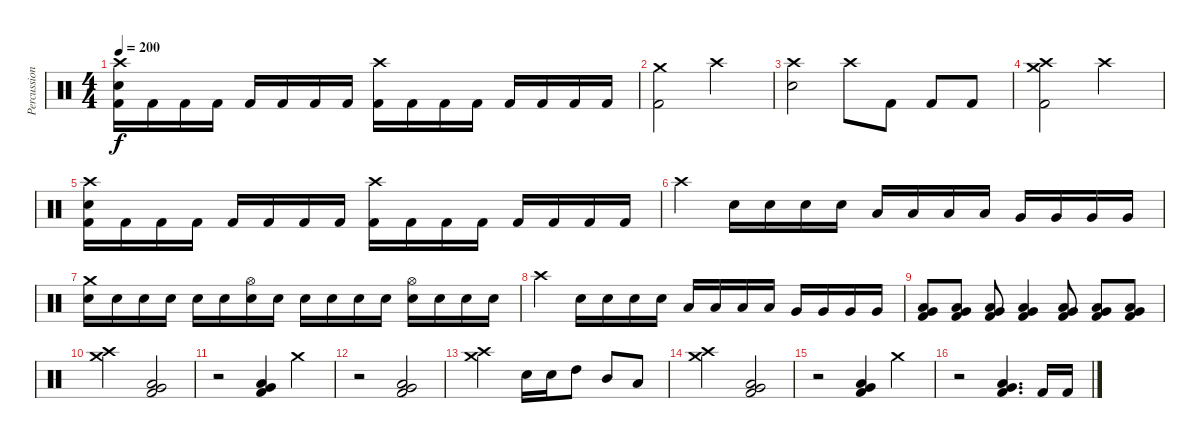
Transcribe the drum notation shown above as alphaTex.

\track ("Percussions" "Percussion") {instrument percussion}
\staff {score}
\articulation defaults
\ts (4 4)
\tempo 200
\clef neutral
\ks c
("Crash high (hit)" "Electric Snare (hit)" "Kick (hit) 2").16{dy f} "Kick (hit) 2".16 "Kick (hit) 2".16 "Kick (hit) 2".16 "Kick (hit) 2".16 "Kick (hit) 2".16 "Kick (hit) 2".16 "Kick (hit) 2".16 ("Crash high (hit)" "Kick (hit) 2").16 "Kick (hit) 2".16 "Kick (hit) 2".16 "Kick (hit) 2".16 "Kick (hit) 2".16 "Kick (hit) 2".16 "Kick (hit) 2".16 "Kick (hit) 2".16 |
("Crash medium (hit)" "Kick (hit) 2").2 "Crash high (hit)".2 |
("Crash high (hit)" "Electric Snare (hit)").2 "Crash high (hit)".8 "Kick (hit) 2".8 "Kick (hit) 2".8 "Kick (hit) 2".8 |
("Crash high (hit)" "Crash medium (hit)" "Kick (hit) 2").2 "Crash high (hit)".2 |
("Crash high (hit)" "Electric Snare (hit)" "Kick (hit) 2").16 "Kick (hit) 2".16 "Kick (hit) 2".16 "Kick (hit) 2".16 "Kick (hit) 2".16 "Kick (hit) 2".16 "Kick (hit) 2".16 "Kick (hit) 2".16 ("Crash high (hit)" "Kick (hit) 2").16 "Kick (hit) 2".16 "Kick (hit) 2".16 "Kick (hit) 2".16 "Kick (hit) 2".16 "Kick (hit) 2".16 "Kick (hit) 2".16 "Kick (hit) 2".16 |
"Crash high (hit)".4 "Electric Snare (hit)".16 "Electric Snare (hit)".16 "Electric Snare (hit)".16 "Electric Snare (hit)".16 "Low Tom (hit)".16 "Low Tom (hit)".16 "Low Tom (hit)".16 "Low Tom (hit)".16 "Very Low Tom (hit)".16 "Very Low Tom (hit)".16 "Very Low Tom (hit)".16 "Very Low Tom (hit)".16 |
("Crash medium (hit)" "Electric Snare (hit)").16 "Electric Snare (hit)".16 "Electric Snare (hit)".16 "Electric Snare (hit)".16 "Electric Snare (hit)".16 "Electric Snare (hit)".16 ("Hi-Hat (open)" "Electric Snare (hit)").16 "Electric Snare (hit)".16 "Electric Snare (hit)".16 "Electric Snare (hit)".16 "Electric Snare (hit)".16 "Electric Snare (hit)".16 ("Hi-Hat (open)" "Electric Snare (hit)").16 "Electric Snare (hit)".16 "Electric Snare (hit)".16 "Electric Snare (hit)".16 |
"Crash high (hit)".4 "Electric Snare (hit)".16 "Electric Snare (hit)".16 "Electric Snare (hit)".16 "Electric Snare (hit)".16 "Low Tom (hit)".16 "Low Tom (hit)".16 "Low Tom (hit)".16 "Low Tom (hit)".16 "Very Low Tom (hit)".16 "Very Low Tom (hit)".16 "Very Low Tom (hit)".16 "Very Low Tom (hit)".16 |
("Very Low Tom (hit)" "Low Floor Tom (hit)" "Kick (hit) 2").8 ("Very Low Tom (hit)" "Low Floor Tom (hit)" "Kick (hit) 2").8 ("Very Low Tom (hit)" "Low Floor Tom (hit)" "Kick (hit) 2").8 ("Very Low Tom (hit)" "Low Floor Tom (hit)" "Kick (hit) 2").4 ("Very Low Tom (hit)" "Low Floor Tom (hit)" "Kick (hit) 2").8 ("Very Low Tom (hit)" "Low Floor Tom (hit)" "Kick (hit) 2").8 ("Very Low Tom (hit)" "Low Floor Tom (hit)" "Kick (hit) 2").8 |
("Crash high (hit)" "Crash medium (hit)").2 ("Low Floor Tom (hit)" "Very Low Tom (hit)" "Kick (hit) 2").2 |
r.2 ("Low Floor Tom (hit)" "Very Low Tom (hit)" "Kick (hit) 2").4 "Crash medium (hit)".4 |
r.2 ("Low Floor Tom (hit)" "Very Low Tom (hit)" "Kick (hit) 2").2 |
("Crash high (hit)" "Crash medium (hit)").2 "Electric Snare (hit)".16 "Electric Snare (hit)".16 "High Tom (hit)".8 "Mid Tom (hit)".8 "Low Tom (hit)".8 |
("Crash high (hit)" "Crash medium (hit)").2 ("Low Floor Tom (hit)" "Very Low Tom (hit)" "Kick (hit) 2").2 |
r.2 ("Low Floor Tom (hit)" "Very Low Tom (hit)" "Kick (hit) 2").4 "Crash medium (hit)".4 |
r.2 ("Low Floor Tom (hit)" "Very Low Tom (hit)" "Kick (hit) 2").4{d} "Kick (hit) 2".16 "Kick (hit) 2".16
